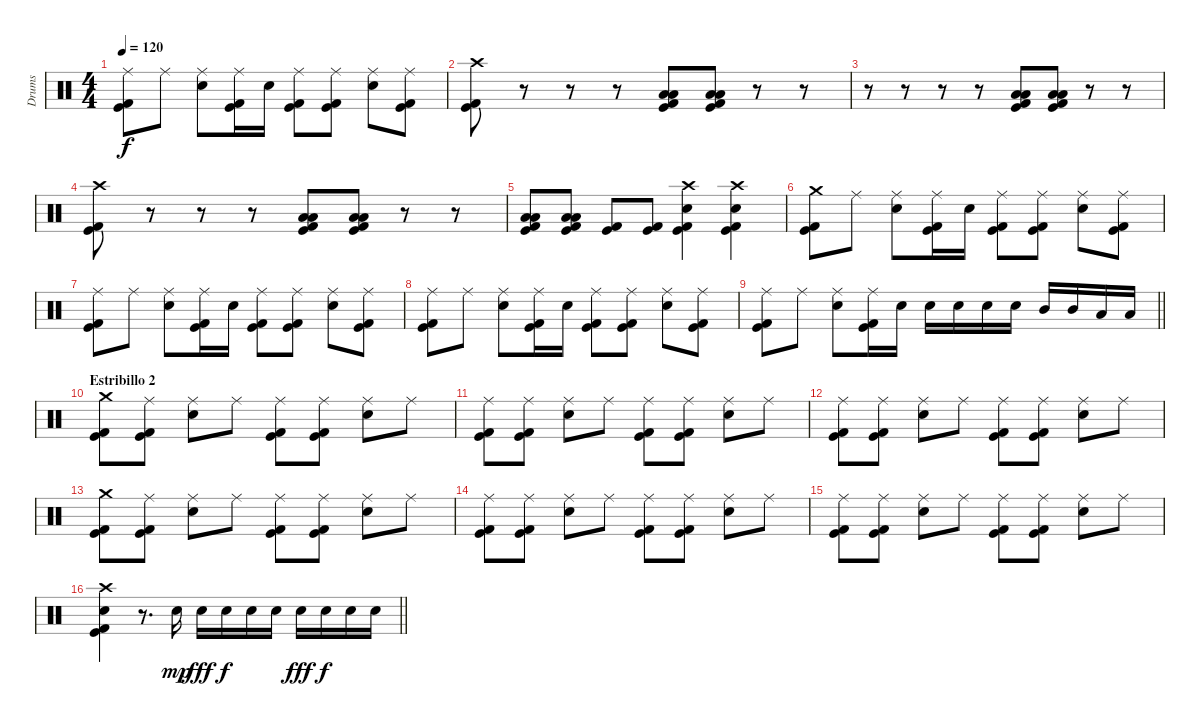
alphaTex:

\track ("Drums" "Drums") {instrument percussion}
\staff {score}
\articulation defaults
\ts (4 4)
\tempo 120
\clef neutral
\ks c
("Ride (middle)" "Kick (hit)" "Kick (hit) 2").8{dy f} "Ride (middle)".8 ("Ride (middle)" "Electric Snare (hit)").8 ("Ride (middle)" "Kick (hit)" "Kick (hit) 2").16 "Electric Snare (hit)".16 ("Ride (middle)" "Kick (hit)" "Kick (hit) 2").8 ("Ride (middle)" "Kick (hit)" "Kick (hit) 2").8 ("Ride (middle)" "Electric Snare (hit)").8 ("Ride (middle)" "Kick (hit)" "Kick (hit) 2").8 |
("Crash high (hit)" "Kick (hit)" "Kick (hit) 2").8 r.8 r.8 r.8 ("Low Tom (hit)" "Low Tom (hit)" "Kick (hit)" "Kick (hit) 2").8 ("Low Tom (hit)" "Low Tom (hit)" "Kick (hit)" "Kick (hit) 2").8 r.8 r.8 |
r.8 r.8 r.8 r.8 ("Low Tom (hit)" "Low Tom (hit)" "Kick (hit)" "Kick (hit) 2").8 ("Low Tom (hit)" "Low Tom (hit)" "Kick (hit)" "Kick (hit) 2").8 r.8 r.8 |
("Crash high (hit)" "Kick (hit)" "Kick (hit) 2").8 r.8 r.8 r.8 ("Low Tom (hit)" "Low Tom (hit)" "Kick (hit)" "Kick (hit) 2").8 ("Low Tom (hit)" "Low Tom (hit)" "Kick (hit)" "Kick (hit) 2").8 r.8 r.8 |
("Low Tom (hit)" "Low Tom (hit)" "Kick (hit)" "Kick (hit) 2").8 ("Low Tom (hit)" "Low Tom (hit)" "Kick (hit)" "Kick (hit) 2").8 ("Kick (hit)" "Kick (hit) 2").8 ("Kick (hit)" "Kick (hit) 2").8 ("Crash high (hit)" "Electric Snare (hit)" "Kick (hit)" "Kick (hit) 2").4 ("Crash high (hit)" "Electric Snare (hit)" "Kick (hit)" "Kick (hit) 2").4 |
("Crash medium (hit)" "Kick (hit)" "Kick (hit) 2").8 "Ride (middle)".8 ("Ride (middle)" "Electric Snare (hit)").8 ("Ride (middle)" "Kick (hit)" "Kick (hit) 2").16 "Electric Snare (hit)".16 ("Ride (middle)" "Kick (hit)" "Kick (hit) 2").8 ("Ride (middle)" "Kick (hit)" "Kick (hit) 2").8 ("Ride (middle)" "Electric Snare (hit)").8 ("Ride (middle)" "Kick (hit)" "Kick (hit) 2").8 |
("Ride (middle)" "Kick (hit)" "Kick (hit) 2").8 "Ride (middle)".8 ("Ride (middle)" "Electric Snare (hit)").8 ("Ride (middle)" "Kick (hit)" "Kick (hit) 2").16 "Electric Snare (hit)".16 ("Ride (middle)" "Kick (hit)" "Kick (hit) 2").8 ("Ride (middle)" "Kick (hit)" "Kick (hit) 2").8 ("Ride (middle)" "Electric Snare (hit)").8 ("Ride (middle)" "Kick (hit)" "Kick (hit) 2").8 |
("Ride (middle)" "Kick (hit)" "Kick (hit) 2").8 "Ride (middle)".8 ("Ride (middle)" "Electric Snare (hit)").8 ("Ride (middle)" "Kick (hit)" "Kick (hit) 2").16 "Electric Snare (hit)".16 ("Ride (middle)" "Kick (hit)" "Kick (hit) 2").8 ("Ride (middle)" "Kick (hit)" "Kick (hit) 2").8 ("Ride (middle)" "Electric Snare (hit)").8 ("Ride (middle)" "Kick (hit)" "Kick (hit) 2").8 |
\barLineRight lightlight
("Ride (middle)" "Kick (hit)" "Kick (hit) 2").8 "Ride (middle)".8 ("Ride (middle)" "Electric Snare (hit)").8 ("Ride (middle)" "Kick (hit)" "Kick (hit) 2").16 "Electric Snare (hit)".16 "Electric Snare (hit)".16 "Electric Snare (hit)".16 "Electric Snare (hit)".16 "Electric Snare (hit)".16 "Mid Tom (hit)".16 "Mid Tom (hit)".16 "Low Tom (hit)".16 "Low Tom (hit)".16 |
\section ("" "Estribillo 2")
("Crash medium (hit)" "Kick (hit)" "Kick (hit) 2").8 ("Ride (middle)" "Kick (hit)" "Kick (hit) 2").8 ("Ride (middle)" "Electric Snare (hit)").8 "Ride (middle)".8 ("Ride (middle)" "Kick (hit)" "Kick (hit) 2").8 ("Ride (middle)" "Kick (hit)" "Kick (hit) 2").8 ("Ride (middle)" "Electric Snare (hit)").8 "Ride (middle)".8 |
("Ride (middle)" "Kick (hit)" "Kick (hit) 2").8 ("Ride (middle)" "Kick (hit)" "Kick (hit) 2").8 ("Ride (middle)" "Electric Snare (hit)").8 "Ride (middle)".8 ("Ride (middle)" "Kick (hit)" "Kick (hit) 2").8 ("Ride (middle)" "Kick (hit)" "Kick (hit) 2").8 ("Ride (middle)" "Electric Snare (hit)").8 "Ride (middle)".8 |
("Ride (middle)" "Kick (hit)" "Kick (hit) 2").8 ("Ride (middle)" "Kick (hit)" "Kick (hit) 2").8 ("Ride (middle)" "Electric Snare (hit)").8 "Ride (middle)".8 ("Ride (middle)" "Kick (hit)" "Kick (hit) 2").8 ("Ride (middle)" "Kick (hit)" "Kick (hit) 2").8 ("Ride (middle)" "Electric Snare (hit)").8 "Ride (middle)".8 |
("Crash medium (hit)" "Kick (hit)" "Kick (hit) 2").8 ("Ride (middle)" "Kick (hit)" "Kick (hit) 2").8 ("Ride (middle)" "Electric Snare (hit)").8 "Ride (middle)".8 ("Ride (middle)" "Kick (hit)" "Kick (hit) 2").8 ("Ride (middle)" "Kick (hit)" "Kick (hit) 2").8 ("Ride (middle)" "Electric Snare (hit)").8 "Ride (middle)".8 |
("Ride (middle)" "Kick (hit)" "Kick (hit) 2").8 ("Ride (middle)" "Kick (hit)" "Kick (hit) 2").8 ("Ride (middle)" "Electric Snare (hit)").8 "Ride (middle)".8 ("Ride (middle)" "Kick (hit)" "Kick (hit) 2").8 ("Ride (middle)" "Kick (hit)" "Kick (hit) 2").8 ("Ride (middle)" "Electric Snare (hit)").8 "Ride (middle)".8 |
("Ride (middle)" "Kick (hit)" "Kick (hit) 2").8 ("Ride (middle)" "Kick (hit)" "Kick (hit) 2").8 ("Ride (middle)" "Electric Snare (hit)").8 "Ride (middle)".8 ("Ride (middle)" "Kick (hit)" "Kick (hit) 2").8 ("Ride (middle)" "Kick (hit)" "Kick (hit) 2").8 ("Ride (middle)" "Electric Snare (hit)").8 "Ride (middle)".8 |
\barLineRight lightlight
("Crash high (hit)" "Electric Snare (hit)" "Kick (hit)" "Kick (hit) 2").4 r.8{d} "Electric Snare (hit)".16{dy mp} "Electric Snare (hit)".16{dy fff} "Electric Snare (hit)".16{dy f} "Electric Snare (hit)".16 "Electric Snare (hit)".16 "Electric Snare (hit)".16{dy fff} "Electric Snare (hit)".16{dy f} "Electric Snare (hit)".16 "Electric Snare (hit)".16
